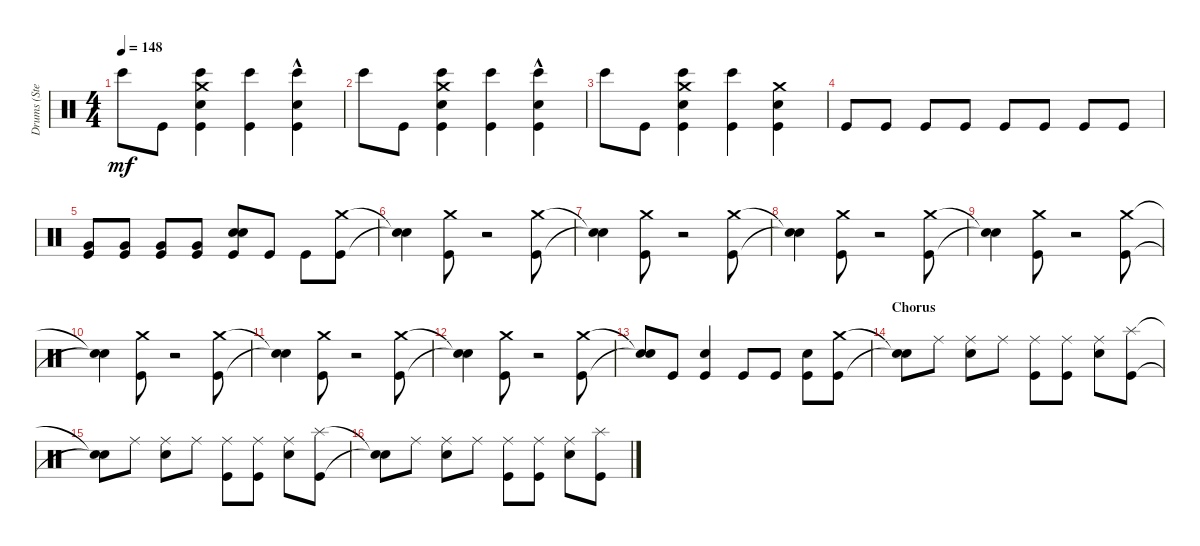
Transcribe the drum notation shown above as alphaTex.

\track ("Drums (Steven)" "Drums (Ste") {instrument percussion}
\staff {score}
\articulation defaults
\ts (4 4)
\tempo 148
\clef neutral
\ks c "Bongo High (hit)".8{dy mf} "Kick (hit)".8
("Kick (hit)" "Snare (hit) 2" "Crash medium (hit)" "Bongo High (hit)").4 ("Kick (hit)" "Bongo High (hit)").4 ("Kick (hit)"{hac} "Snare (hit) 2" "Bongo High (hit)").4 |
"Bongo High (hit)".8 "Kick (hit)".8 ("Kick (hit)" "Snare (hit) 2" "Crash medium (hit)" "Bongo High (hit)").4 ("Kick (hit)" "Bongo High (hit)").4 ("Kick (hit)"{hac} "Snare (hit) 2" "Bongo High (hit)").4 |
"Bongo High (hit)".8 "Kick (hit)".8 ("Kick (hit)" "Snare (hit) 2" "Crash medium (hit)" "Bongo High (hit)").4 ("Kick (hit)" "Bongo High (hit)").4 ("Kick (hit)" "Snare (hit) 2" "Crash medium (hit)").4 |
"Kick (hit)".8 "Kick (hit)".8 "Kick (hit)".8 "Kick (hit)".8 "Kick (hit)".8 "Kick (hit)".8 "Kick (hit)".8 "Kick (hit)".8 |
("Kick (hit)" "Very Low Tom (hit)").8 ("Kick (hit)" "Very Low Tom (hit)").8 ("Kick (hit)" "Very Low Tom (hit)").8 ("Kick (hit)" "Very Low Tom (hit)").8 ("Kick (hit)" "Snare (hit) 2" "Snare (hit) 2").8 "Kick (hit)".8 "Kick (hit)".8 ("Kick (hit)" "Crash medium (hit)").8 |
("Snare (hit)"{t} "Snare (hit)"{t}).4 ("Kick (hit)" "Crash medium (hit)").8 r.2 ("Kick (hit)" "Crash medium (hit)").8 |
("Snare (hit)"{t} "Snare (hit)"{t}).4 ("Kick (hit)" "Crash medium (hit)").8 r.2 ("Kick (hit)" "Crash medium (hit)").8 |
("Snare (hit)"{t} "Snare (hit)"{t}).4 ("Kick (hit)" "Crash medium (hit)").8 r.2 ("Kick (hit)" "Crash medium (hit)").8 |
("Snare (hit)"{t} "Snare (hit)"{t}).4 ("Kick (hit)" "Crash medium (hit)").8 r.2 ("Kick (hit)" "Crash medium (hit)").8 |
("Snare (hit)"{t} "Snare (hit)"{t}).4 ("Kick (hit)" "Crash medium (hit)").8 r.2 ("Kick (hit)" "Crash medium (hit)").8 |
("Snare (hit)"{t} "Snare (hit)"{t}).4 ("Kick (hit)" "Crash medium (hit)").8 r.2 ("Kick (hit)" "Crash medium (hit)").8 |
("Snare (hit)"{t} "Snare (hit)"{t}).4 ("Kick (hit)" "Crash medium (hit)").8 r.2 ("Kick (hit)" "Crash medium (hit)").8 |
("Snare (hit)"{t} "Snare (hit)"{t}).8 "Kick (hit)".8 ("Kick (hit)" "Snare (hit) 2").4 "Kick (hit)".8 "Kick (hit)".8 ("Kick (hit)" "Snare (hit) 2").8 ("Kick (hit)" "Crash medium (hit)").8 |
\section ("" "Chorus")
("Snare (hit)"{t} "Snare (hit)"{t}).8 "Ride (middle)".8 ("Snare (hit) 2" "Ride (middle)").8 "Ride (middle)".8 ("Kick (hit)" "Ride (middle)").8 ("Kick (hit)" "Ride (middle)").8 ("Snare (hit) 2" "Ride (middle)").8 ("Kick (hit)" "Splash (hit)").8 |
("Snare (hit)"{t} "Snare (hit)"{t}).8 "Ride (middle)".8 ("Snare (hit) 2" "Ride (middle)").8 "Ride (middle)".8 ("Kick (hit)" "Ride (middle)").8 ("Kick (hit)" "Ride (middle)").8 ("Snare (hit) 2" "Ride (middle)").8 ("Kick (hit)" "Splash (hit)").8 |
("Snare (hit)"{t} "Snare (hit)"{t}).8 "Ride (middle)".8 ("Snare (hit) 2" "Ride (middle)").8 "Ride (middle)".8 ("Kick (hit)" "Ride (middle)").8 ("Kick (hit)" "Ride (middle)").8 ("Snare (hit) 2" "Ride (middle)").8 ("Kick (hit)" "Splash (hit)").8
